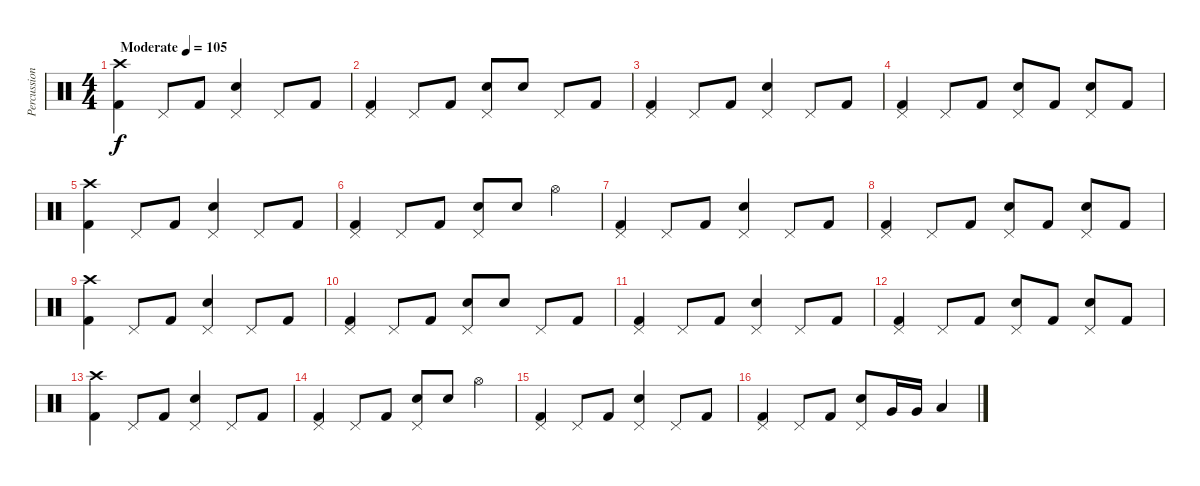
\track ("Percussion" "Percussion") {instrument percussion}
\staff {score}
\articulation defaults
\ts (4 4)
\tempo (105 "Moderate")
\clef neutral
\ks c
("Crash high (hit)" "Kick (hit) 2").4{dy f} "Pedal Hi-Hat (hit)".8 "Kick (hit) 2".8 ("Pedal Hi-Hat (hit)" "Electric Snare (hit)").4 "Pedal Hi-Hat (hit)".8 "Kick (hit) 2".8 |
("Pedal Hi-Hat (hit)" "Kick (hit) 2").4 "Pedal Hi-Hat (hit)".8 "Kick (hit) 2".8 ("Pedal Hi-Hat (hit)" "Electric Snare (hit)").8 "Electric Snare (hit)".8 "Pedal Hi-Hat (hit)".8 "Kick (hit) 2".8 |
("Pedal Hi-Hat (hit)" "Kick (hit) 2").4 "Pedal Hi-Hat (hit)".8 "Kick (hit) 2".8 ("Pedal Hi-Hat (hit)" "Electric Snare (hit)").4 "Pedal Hi-Hat (hit)".8 "Kick (hit) 2".8 |
("Pedal Hi-Hat (hit)" "Kick (hit) 2").4 "Pedal Hi-Hat (hit)".8 "Kick (hit) 2".8 ("Pedal Hi-Hat (hit)" "Electric Snare (hit)").8 "Kick (hit) 2".8 ("Pedal Hi-Hat (hit)" "Electric Snare (hit)").8 "Kick (hit) 2".8 |
("Crash high (hit)" "Kick (hit) 2").4 "Pedal Hi-Hat (hit)".8 "Kick (hit) 2".8 ("Pedal Hi-Hat (hit)" "Electric Snare (hit)").4 "Pedal Hi-Hat (hit)".8 "Kick (hit) 2".8 |
("Pedal Hi-Hat (hit)" "Kick (hit) 2").4 "Pedal Hi-Hat (hit)".8 "Kick (hit) 2".8 ("Pedal Hi-Hat (hit)" "Electric Snare (hit)").8 "Electric Snare (hit)".8 "Hi-Hat (open)".4 |
("Pedal Hi-Hat (hit)" "Kick (hit) 2").4 "Pedal Hi-Hat (hit)".8 "Kick (hit) 2".8 ("Pedal Hi-Hat (hit)" "Electric Snare (hit)").4 "Pedal Hi-Hat (hit)".8 "Kick (hit) 2".8 |
("Pedal Hi-Hat (hit)" "Kick (hit) 2").4 "Pedal Hi-Hat (hit)".8 "Kick (hit) 2".8 ("Pedal Hi-Hat (hit)" "Electric Snare (hit)").8 "Kick (hit) 2".8 ("Pedal Hi-Hat (hit)" "Electric Snare (hit)").8 "Kick (hit) 2".8 |
("Crash high (hit)" "Kick (hit) 2").4 "Pedal Hi-Hat (hit)".8 "Kick (hit) 2".8 ("Pedal Hi-Hat (hit)" "Electric Snare (hit)").4 "Pedal Hi-Hat (hit)".8 "Kick (hit) 2".8 |
("Pedal Hi-Hat (hit)" "Kick (hit) 2").4 "Pedal Hi-Hat (hit)".8 "Kick (hit) 2".8 ("Pedal Hi-Hat (hit)" "Electric Snare (hit)").8 "Electric Snare (hit)".8 "Pedal Hi-Hat (hit)".8 "Kick (hit) 2".8 |
("Pedal Hi-Hat (hit)" "Kick (hit) 2").4 "Pedal Hi-Hat (hit)".8 "Kick (hit) 2".8 ("Pedal Hi-Hat (hit)" "Electric Snare (hit)").4 "Pedal Hi-Hat (hit)".8 "Kick (hit) 2".8 |
("Pedal Hi-Hat (hit)" "Kick (hit) 2").4 "Pedal Hi-Hat (hit)".8 "Kick (hit) 2".8 ("Pedal Hi-Hat (hit)" "Electric Snare (hit)").8 "Kick (hit) 2".8 ("Pedal Hi-Hat (hit)" "Electric Snare (hit)").8 "Kick (hit) 2".8 |
("Crash high (hit)" "Kick (hit) 2").4 "Pedal Hi-Hat (hit)".8 "Kick (hit) 2".8 ("Pedal Hi-Hat (hit)" "Electric Snare (hit)").4 "Pedal Hi-Hat (hit)".8 "Kick (hit) 2".8 |
("Pedal Hi-Hat (hit)" "Kick (hit) 2").4 "Pedal Hi-Hat (hit)".8 "Kick (hit) 2".8 ("Pedal Hi-Hat (hit)" "Electric Snare (hit)").8 "Electric Snare (hit)".8 "Hi-Hat (open)".4 |
("Pedal Hi-Hat (hit)" "Kick (hit) 2").4 "Pedal Hi-Hat (hit)".8 "Kick (hit) 2".8 ("Pedal Hi-Hat (hit)" "Electric Snare (hit)").4 "Pedal Hi-Hat (hit)".8 "Kick (hit) 2".8 |
("Pedal Hi-Hat (hit)" "Kick (hit) 2").4 "Pedal Hi-Hat (hit)".8 "Kick (hit) 2".8 ("Pedal Hi-Hat (hit)" "Electric Snare (hit)").8 "Very Low Tom (hit)".16 "Very Low Tom (hit)".16 "Low Tom (hit)".4
